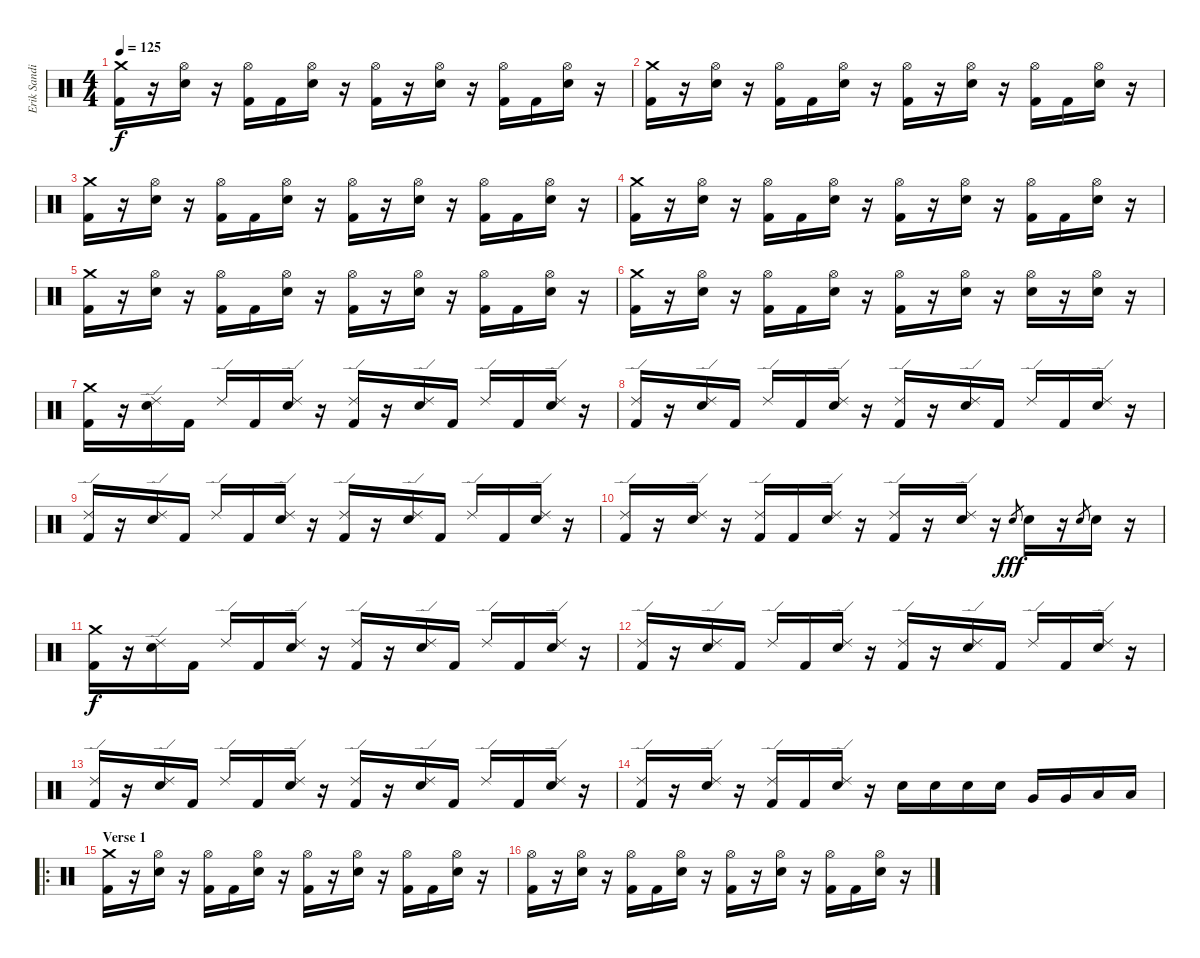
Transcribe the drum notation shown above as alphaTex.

\track ("Erik Sandin" "Erik Sandi") {instrument percussion}
\staff {score}
\articulation defaults
\ts (4 4)
\tempo 125
\clef neutral
\ks c
("Crash medium (hit)" "Kick (hit) 2").16{dy f} r.16 ("Hi-Hat (open)" "Snare (hit) 2").16 r.16 ("Hi-Hat (open)" "Kick (hit) 2").16 "Kick (hit) 2".16 ("Hi-Hat (open)" "Snare (hit) 2").16 r.16 ("Hi-Hat (open)" "Kick (hit) 2").16 r.16 ("Hi-Hat (open)" "Snare (hit) 2").16 r.16 ("Hi-Hat (open)" "Kick (hit) 2").16 "Kick (hit) 2".16 ("Hi-Hat (open)" "Snare (hit) 2").16 r.16 |
("Crash medium (hit)" "Kick (hit) 2").16 r.16 ("Hi-Hat (open)" "Snare (hit) 2").16 r.16 ("Hi-Hat (open)" "Kick (hit) 2").16 "Kick (hit) 2".16 ("Hi-Hat (open)" "Snare (hit) 2").16 r.16 ("Hi-Hat (open)" "Kick (hit) 2").16 r.16 ("Hi-Hat (open)" "Snare (hit) 2").16 r.16 ("Hi-Hat (open)" "Kick (hit) 2").16 "Kick (hit) 2".16 ("Hi-Hat (open)" "Snare (hit) 2").16 r.16 |
("Crash medium (hit)" "Kick (hit) 2").16 r.16 ("Hi-Hat (open)" "Snare (hit) 2").16 r.16 ("Hi-Hat (open)" "Kick (hit) 2").16 "Kick (hit) 2".16 ("Hi-Hat (open)" "Snare (hit) 2").16 r.16 ("Hi-Hat (open)" "Kick (hit) 2").16 r.16 ("Hi-Hat (open)" "Snare (hit) 2").16 r.16 ("Hi-Hat (open)" "Kick (hit) 2").16 "Kick (hit) 2".16 ("Hi-Hat (open)" "Snare (hit) 2").16 r.16 |
("Crash medium (hit)" "Kick (hit) 2").16 r.16 ("Hi-Hat (open)" "Snare (hit) 2").16 r.16 ("Hi-Hat (open)" "Kick (hit) 2").16 "Kick (hit) 2".16 ("Hi-Hat (open)" "Snare (hit) 2").16 r.16 ("Hi-Hat (open)" "Kick (hit) 2").16 r.16 ("Hi-Hat (open)" "Snare (hit) 2").16 r.16 ("Hi-Hat (open)" "Kick (hit) 2").16 "Kick (hit) 2".16 ("Hi-Hat (open)" "Snare (hit) 2").16 r.16 |
("Crash medium (hit)" "Kick (hit) 2").16 r.16 ("Hi-Hat (open)" "Snare (hit) 2").16 r.16 ("Hi-Hat (open)" "Kick (hit) 2").16 "Kick (hit) 2".16 ("Hi-Hat (open)" "Snare (hit) 2").16 r.16 ("Hi-Hat (open)" "Kick (hit) 2").16 r.16 ("Hi-Hat (open)" "Snare (hit) 2").16 r.16 ("Hi-Hat (open)" "Kick (hit) 2").16 "Kick (hit) 2".16 ("Hi-Hat (open)" "Snare (hit) 2").16 r.16 |
("Crash medium (hit)" "Kick (hit) 2").16 r.16 ("Hi-Hat (open)" "Snare (hit) 2").16 r.16 ("Hi-Hat (open)" "Kick (hit) 2").16 "Kick (hit) 2".16 ("Hi-Hat (open)" "Snare (hit) 2").16 r.16 ("Hi-Hat (open)" "Kick (hit) 2").16 r.16 ("Hi-Hat (open)" "Snare (hit) 2").16 r.16 ("Hi-Hat (open)" "Snare (hit) 2").16 r.16 ("Hi-Hat (open)" "Snare (hit) 2").16 r.16 |
("Crash medium (hit)" "Kick (hit) 2").16 r.16 ("Ride (edge) 2" "Snare (hit) 2").16 "Kick (hit) 2".16 "Ride (edge) 2".16 "Kick (hit) 2".16 ("Ride (edge) 2" "Snare (hit) 2").16 r.16 ("Ride (edge) 2" "Kick (hit) 2").16 r.16 ("Ride (edge) 2" "Snare (hit) 2").16 "Kick (hit) 2".16 "Ride (edge) 2".16 "Kick (hit) 2".16 ("Ride (edge) 2" "Snare (hit) 2").16 r.16 |
("Ride (edge) 2" "Kick (hit) 2").16 r.16 ("Ride (edge) 2" "Snare (hit) 2").16 "Kick (hit) 2".16 "Ride (edge) 2".16 "Kick (hit) 2".16 ("Ride (edge) 2" "Snare (hit) 2").16 r.16 ("Ride (edge) 2" "Kick (hit) 2").16 r.16 ("Ride (edge) 2" "Snare (hit) 2").16 "Kick (hit) 2".16 "Ride (edge) 2".16 "Kick (hit) 2".16 ("Ride (edge) 2" "Snare (hit) 2").16 r.16 |
("Ride (edge) 2" "Kick (hit) 2").16 r.16 ("Ride (edge) 2" "Snare (hit) 2").16 "Kick (hit) 2".16 "Ride (edge) 2".16 "Kick (hit) 2".16 ("Ride (edge) 2" "Snare (hit) 2").16 r.16 ("Ride (edge) 2" "Kick (hit) 2").16 r.16 ("Ride (edge) 2" "Snare (hit) 2").16 "Kick (hit) 2".16 "Ride (edge) 2".16 "Kick (hit) 2".16 ("Ride (edge) 2" "Snare (hit) 2").16 r.16 |
("Ride (edge) 2" "Kick (hit) 2").16 r.16 ("Ride (edge) 2" "Snare (hit) 2").16 r.16 ("Ride (edge) 2" "Kick (hit) 2").16 "Kick (hit) 2".16 ("Ride (edge) 2" "Snare (hit) 2").16 r.16 ("Ride (edge) 2" "Kick (hit) 2").16 r.16 ("Ride (edge) 2" "Snare (hit) 2").16 r.16 "Snare (hit) 2".8{gr dy fff} "Snare (hit) 2".16 r.16 "Snare (hit) 2".8{gr} "Snare (hit) 2".16 r.16 |
("Crash medium (hit)" "Kick (hit) 2").16{dy f} r.16 ("Ride (edge) 2" "Snare (hit) 2").16 "Kick (hit) 2".16 "Ride (edge) 2".16 "Kick (hit) 2".16 ("Ride (edge) 2" "Snare (hit) 2").16 r.16 ("Ride (edge) 2" "Kick (hit) 2").16 r.16 ("Ride (edge) 2" "Snare (hit) 2").16 "Kick (hit) 2".16 "Ride (edge) 2".16 "Kick (hit) 2".16 ("Ride (edge) 2" "Snare (hit) 2").16 r.16 |
("Ride (edge) 2" "Kick (hit) 2").16 r.16 ("Ride (edge) 2" "Snare (hit) 2").16 "Kick (hit) 2".16 "Ride (edge) 2".16 "Kick (hit) 2".16 ("Ride (edge) 2" "Snare (hit) 2").16 r.16 ("Ride (edge) 2" "Kick (hit) 2").16 r.16 ("Ride (edge) 2" "Snare (hit) 2").16 "Kick (hit) 2".16 "Ride (edge) 2".16 "Kick (hit) 2".16 ("Ride (edge) 2" "Snare (hit) 2").16 r.16 |
("Ride (edge) 2" "Kick (hit) 2").16 r.16 ("Ride (edge) 2" "Snare (hit) 2").16 "Kick (hit) 2".16 "Ride (edge) 2".16 "Kick (hit) 2".16 ("Ride (edge) 2" "Snare (hit) 2").16 r.16 ("Ride (edge) 2" "Kick (hit) 2").16 r.16 ("Ride (edge) 2" "Snare (hit) 2").16 "Kick (hit) 2".16 "Ride (edge) 2".16 "Kick (hit) 2".16 ("Ride (edge) 2" "Snare (hit) 2").16 r.16 |
("Ride (edge) 2" "Kick (hit) 2").16 r.16 ("Ride (edge) 2" "Snare (hit) 2").16 r.16 ("Ride (edge) 2" "Kick (hit) 2").16 "Kick (hit) 2".16 ("Ride (edge) 2" "Snare (hit) 2").16 r.16 "Snare (hit) 2".16 "Snare (hit) 2".16 "Snare (hit) 2".16 "Snare (hit) 2".16 "Very Low Tom (hit)".16 "Very Low Tom (hit)".16 "Low Floor Tom (hit)".16 "Low Floor Tom (hit)".16 |
\ro
\section ("" "Verse 1")
("Crash medium (hit)" "Kick (hit) 2").16 r.16 ("Hi-Hat (open)" "Snare (hit) 2").16 r.16 ("Hi-Hat (open)" "Kick (hit) 2").16 "Kick (hit) 2".16 ("Hi-Hat (open)" "Snare (hit) 2").16 r.16 ("Hi-Hat (open)" "Kick (hit) 2").16 r.16 ("Hi-Hat (open)" "Snare (hit) 2").16 r.16 ("Hi-Hat (open)" "Kick (hit) 2").16 "Kick (hit) 2".16 ("Hi-Hat (open)" "Snare (hit) 2").16 r.16 |
("Hi-Hat (open)" "Kick (hit) 2").16 r.16 ("Hi-Hat (open)" "Snare (hit) 2").16 r.16 ("Hi-Hat (open)" "Kick (hit) 2").16 "Kick (hit) 2".16 ("Hi-Hat (open)" "Snare (hit) 2").16 r.16 ("Hi-Hat (open)" "Kick (hit) 2").16 r.16 ("Hi-Hat (open)" "Snare (hit) 2").16 r.16 ("Hi-Hat (open)" "Kick (hit) 2").16 "Kick (hit) 2".16 ("Hi-Hat (open)" "Snare (hit) 2").16 r.16
